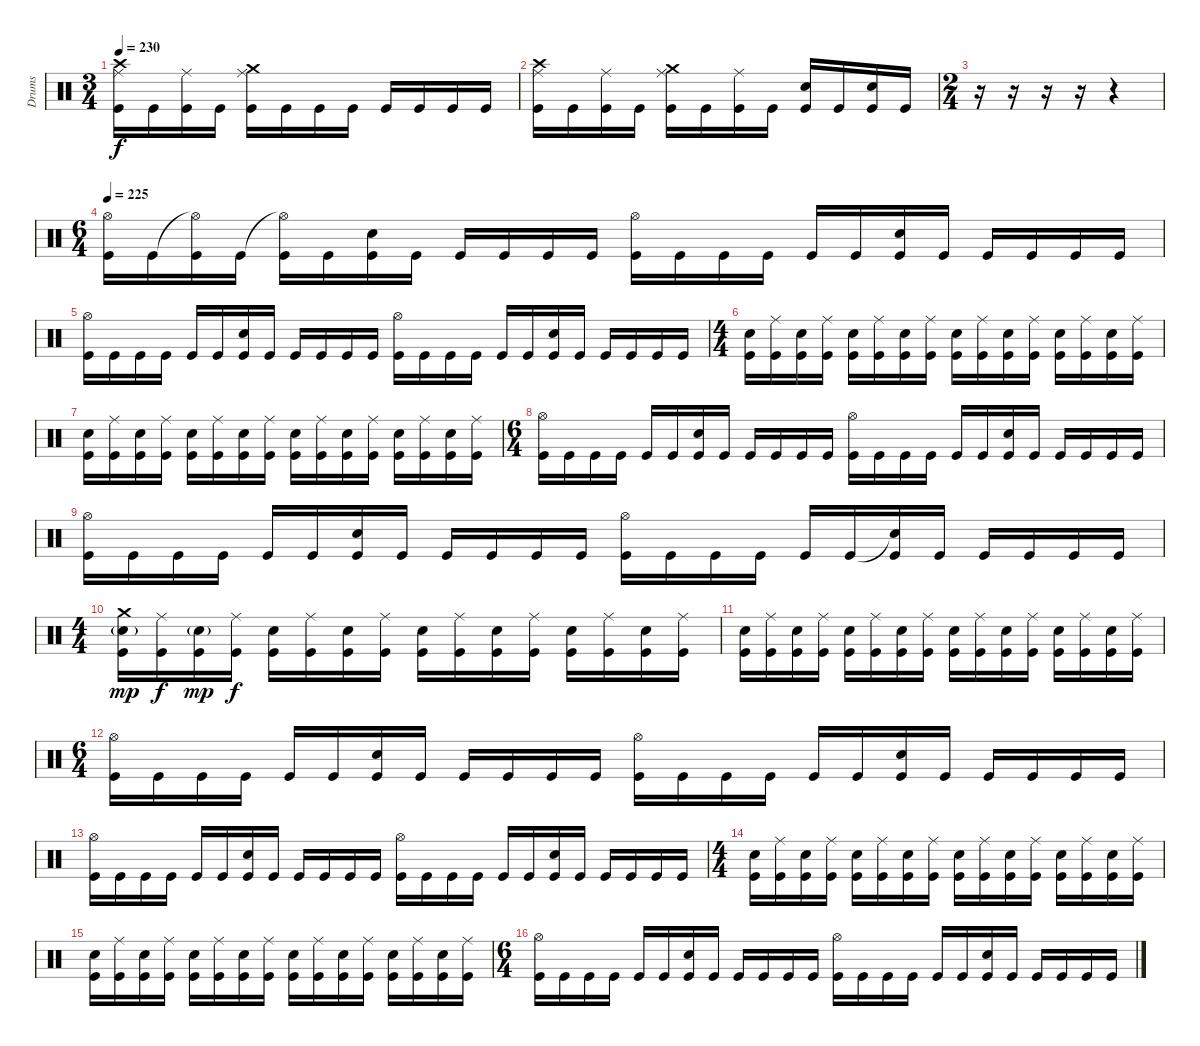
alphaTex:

\track ("Drums" "Drums") {instrument percussion}
\staff {score}
\articulation defaults
\ts (3 4)
\tempo 230
\clef neutral
\ks c
("Ride (middle)" "Crash high (hit)" "Kick (hit)").16{dy f} "Kick (hit)".16 ("Ride (middle)" "Kick (hit)").16 "Kick (hit)".16 ("Ride (middle)" "Crash medium (hit)" "Kick (hit)").16 "Kick (hit)".16 "Kick (hit)".16 "Kick (hit)".16 "Kick (hit)".16 "Kick (hit)".16 "Kick (hit)".16 "Kick (hit)".16 |
("Ride (middle)" "Crash high (hit)" "Kick (hit)").16 "Kick (hit)".16 ("Ride (middle)" "Kick (hit)").16 "Kick (hit)".16 ("Ride (middle)" "Crash medium (hit)" "Kick (hit)").16 "Kick (hit)".16 ("Ride (middle)" "Kick (hit)").16 "Kick (hit)".16 ("Electric Snare (hit)" "Kick (hit)").16 "Kick (hit)".16 ("Electric Snare (hit)" "Kick (hit)").16 "Kick (hit)".16 |
\ts (2 4)
r.16 r.16 r.16 r.16 r.4 |
\ts (6 4)
\tempo 225
("Hi-Hat (open)" "Kick (hit)").16 "Kick (hit)".16 ("Hi-Hat (open)"{t} "Kick (hit)").16 "Kick (hit)".16 ("Hi-Hat (open)"{t} "Kick (hit)").16 "Kick (hit)".16 ("Electric Snare (hit)" "Kick (hit)").16 "Kick (hit)".16 "Kick (hit)".16 "Kick (hit)".16 "Kick (hit)".16 "Kick (hit)".16 ("Hi-Hat (open)" "Kick (hit)").16 "Kick (hit)".16 "Kick (hit)".16 "Kick (hit)".16 "Kick (hit)".16 "Kick (hit)".16 ("Electric Snare (hit)" "Kick (hit)").16 "Kick (hit)".16 "Kick (hit)".16 "Kick (hit)".16 "Kick (hit)".16 "Kick (hit)".16 |
("Hi-Hat (open)" "Kick (hit)").16 "Kick (hit)".16 "Kick (hit)".16 "Kick (hit)".16 "Kick (hit)".16 "Kick (hit)".16 ("Electric Snare (hit)" "Kick (hit)").16 "Kick (hit)".16 "Kick (hit)".16 "Kick (hit)".16 "Kick (hit)".16 "Kick (hit)".16 ("Hi-Hat (open)" "Kick (hit)").16 "Kick (hit)".16 "Kick (hit)".16 "Kick (hit)".16 "Kick (hit)".16 "Kick (hit)".16 ("Electric Snare (hit)" "Kick (hit)").16 "Kick (hit)".16 "Kick (hit)".16 "Kick (hit)".16 "Kick (hit)".16 "Kick (hit)".16 |
\ts (4 4)
("Electric Snare (hit)" "Kick (hit)").16 ("Ride (middle)" "Kick (hit)").16 ("Electric Snare (hit)" "Kick (hit)").16 ("Ride (middle)" "Kick (hit)").16 ("Electric Snare (hit)" "Kick (hit)").16 ("Ride (middle)" "Kick (hit)").16 ("Electric Snare (hit)" "Kick (hit)").16 ("Ride (middle)" "Kick (hit)").16 ("Electric Snare (hit)" "Kick (hit)").16 ("Ride (middle)" "Kick (hit)").16 ("Electric Snare (hit)" "Kick (hit)").16 ("Ride (middle)" "Kick (hit)").16 ("Electric Snare (hit)" "Kick (hit)").16 ("Ride (middle)" "Kick (hit)").16 ("Electric Snare (hit)" "Kick (hit)").16 ("Ride (middle)" "Kick (hit)").16 |
("Electric Snare (hit)" "Kick (hit)").16 ("Ride (middle)" "Kick (hit)").16 ("Electric Snare (hit)" "Kick (hit)").16 ("Ride (middle)" "Kick (hit)").16 ("Electric Snare (hit)" "Kick (hit)").16 ("Ride (middle)" "Kick (hit)").16 ("Electric Snare (hit)" "Kick (hit)").16 ("Ride (middle)" "Kick (hit)").16 ("Electric Snare (hit)" "Kick (hit)").16 ("Ride (middle)" "Kick (hit)").16 ("Electric Snare (hit)" "Kick (hit)").16 ("Ride (middle)" "Kick (hit)").16 ("Electric Snare (hit)" "Kick (hit)").16 ("Ride (middle)" "Kick (hit)").16 ("Electric Snare (hit)" "Kick (hit)").16 ("Ride (middle)" "Kick (hit)").16 |
\ts (6 4)
("Hi-Hat (open)" "Kick (hit)").16 "Kick (hit)".16 "Kick (hit)".16 "Kick (hit)".16 "Kick (hit)".16 "Kick (hit)".16 ("Electric Snare (hit)" "Kick (hit)").16 "Kick (hit)".16 "Kick (hit)".16 "Kick (hit)".16 "Kick (hit)".16 "Kick (hit)".16 ("Hi-Hat (open)" "Kick (hit)").16 "Kick (hit)".16 "Kick (hit)".16 "Kick (hit)".16 "Kick (hit)".16 "Kick (hit)".16 ("Electric Snare (hit)" "Kick (hit)").16 "Kick (hit)".16 "Kick (hit)".16 "Kick (hit)".16 "Kick (hit)".16 "Kick (hit)".16 |
("Hi-Hat (open)" "Kick (hit)").16 "Kick (hit)".16 "Kick (hit)".16 "Kick (hit)".16 "Kick (hit)".16 "Kick (hit)".16 ("Electric Snare (hit)" "Kick (hit)").16 "Kick (hit)".16 "Kick (hit)".16 "Kick (hit)".16 "Kick (hit)".16 "Kick (hit)".16 ("Hi-Hat (open)" "Kick (hit)").16 "Kick (hit)".16 "Kick (hit)".16 "Kick (hit)".16 "Kick (hit)".16 "Kick (hit)".16 ("Electric Snare (hit)"{t} "Kick (hit)").16 "Kick (hit)".16 "Kick (hit)".16 "Kick (hit)".16 "Kick (hit)".16 "Kick (hit)".16 |
\ts (4 4)
("Crash medium (hit)" "Electric Snare (hit)"{g} "Kick (hit)").16{dy mp} ("Ride (middle)" "Kick (hit)").16{dy f} ("Electric Snare (hit)"{g} "Kick (hit)").16{dy mp} ("Ride (middle)" "Kick (hit)").16{dy f} ("Electric Snare (hit)" "Kick (hit)").16 ("Ride (middle)" "Kick (hit)").16 ("Electric Snare (hit)" "Kick (hit)").16 ("Ride (middle)" "Kick (hit)").16 ("Electric Snare (hit)" "Kick (hit)").16 ("Ride (middle)" "Kick (hit)").16 ("Electric Snare (hit)" "Kick (hit)").16 ("Ride (middle)" "Kick (hit)").16 ("Electric Snare (hit)" "Kick (hit)").16 ("Ride (middle)" "Kick (hit)").16 ("Electric Snare (hit)" "Kick (hit)").16 ("Ride (middle)" "Kick (hit)").16 |
("Electric Snare (hit)" "Kick (hit)").16 ("Ride (middle)" "Kick (hit)").16 ("Electric Snare (hit)" "Kick (hit)").16 ("Ride (middle)" "Kick (hit)").16 ("Electric Snare (hit)" "Kick (hit)").16 ("Ride (middle)" "Kick (hit)").16 ("Electric Snare (hit)" "Kick (hit)").16 ("Ride (middle)" "Kick (hit)").16 ("Electric Snare (hit)" "Kick (hit)").16 ("Ride (middle)" "Kick (hit)").16 ("Electric Snare (hit)" "Kick (hit)").16 ("Ride (middle)" "Kick (hit)").16 ("Electric Snare (hit)" "Kick (hit)").16 ("Ride (middle)" "Kick (hit)").16 ("Electric Snare (hit)" "Kick (hit)").16 ("Ride (middle)" "Kick (hit)").16 |
\ts (6 4)
("Hi-Hat (open)" "Kick (hit)").16 "Kick (hit)".16 "Kick (hit)".16 "Kick (hit)".16 "Kick (hit)".16 "Kick (hit)".16 ("Electric Snare (hit)" "Kick (hit)").16 "Kick (hit)".16 "Kick (hit)".16 "Kick (hit)".16 "Kick (hit)".16 "Kick (hit)".16 ("Hi-Hat (open)" "Kick (hit)").16 "Kick (hit)".16 "Kick (hit)".16 "Kick (hit)".16 "Kick (hit)".16 "Kick (hit)".16 ("Electric Snare (hit)" "Kick (hit)").16 "Kick (hit)".16 "Kick (hit)".16 "Kick (hit)".16 "Kick (hit)".16 "Kick (hit)".16 |
("Hi-Hat (open)" "Kick (hit)").16 "Kick (hit)".16 "Kick (hit)".16 "Kick (hit)".16 "Kick (hit)".16 "Kick (hit)".16 ("Electric Snare (hit)" "Kick (hit)").16 "Kick (hit)".16 "Kick (hit)".16 "Kick (hit)".16 "Kick (hit)".16 "Kick (hit)".16 ("Hi-Hat (open)" "Kick (hit)").16 "Kick (hit)".16 "Kick (hit)".16 "Kick (hit)".16 "Kick (hit)".16 "Kick (hit)".16 ("Electric Snare (hit)" "Kick (hit)").16 "Kick (hit)".16 "Kick (hit)".16 "Kick (hit)".16 "Kick (hit)".16 "Kick (hit)".16 |
\ts (4 4)
("Electric Snare (hit)" "Kick (hit)").16 ("Ride (middle)" "Kick (hit)").16 ("Electric Snare (hit)" "Kick (hit)").16 ("Ride (middle)" "Kick (hit)").16 ("Electric Snare (hit)" "Kick (hit)").16 ("Ride (middle)" "Kick (hit)").16 ("Electric Snare (hit)" "Kick (hit)").16 ("Ride (middle)" "Kick (hit)").16 ("Electric Snare (hit)" "Kick (hit)").16 ("Ride (middle)" "Kick (hit)").16 ("Electric Snare (hit)" "Kick (hit)").16 ("Ride (middle)" "Kick (hit)").16 ("Electric Snare (hit)" "Kick (hit)").16 ("Ride (middle)" "Kick (hit)").16 ("Electric Snare (hit)" "Kick (hit)").16 ("Ride (middle)" "Kick (hit)").16 |
("Electric Snare (hit)" "Kick (hit)").16 ("Ride (middle)" "Kick (hit)").16 ("Electric Snare (hit)" "Kick (hit)").16 ("Ride (middle)" "Kick (hit)").16 ("Electric Snare (hit)" "Kick (hit)").16 ("Ride (middle)" "Kick (hit)").16 ("Electric Snare (hit)" "Kick (hit)").16 ("Ride (middle)" "Kick (hit)").16 ("Electric Snare (hit)" "Kick (hit)").16 ("Ride (middle)" "Kick (hit)").16 ("Electric Snare (hit)" "Kick (hit)").16 ("Ride (middle)" "Kick (hit)").16 ("Electric Snare (hit)" "Kick (hit)").16 ("Ride (middle)" "Kick (hit)").16 ("Electric Snare (hit)" "Kick (hit)").16 ("Ride (middle)" "Kick (hit)").16 |
\ts (6 4)
("Hi-Hat (open)" "Kick (hit)").16 "Kick (hit)".16 "Kick (hit)".16 "Kick (hit)".16 "Kick (hit)".16 "Kick (hit)".16 ("Electric Snare (hit)" "Kick (hit)").16 "Kick (hit)".16 "Kick (hit)".16 "Kick (hit)".16 "Kick (hit)".16 "Kick (hit)".16 ("Hi-Hat (open)" "Kick (hit)").16 "Kick (hit)".16 "Kick (hit)".16 "Kick (hit)".16 "Kick (hit)".16 "Kick (hit)".16 ("Electric Snare (hit)" "Kick (hit)").16 "Kick (hit)".16 "Kick (hit)".16 "Kick (hit)".16 "Kick (hit)".16 "Kick (hit)".16
